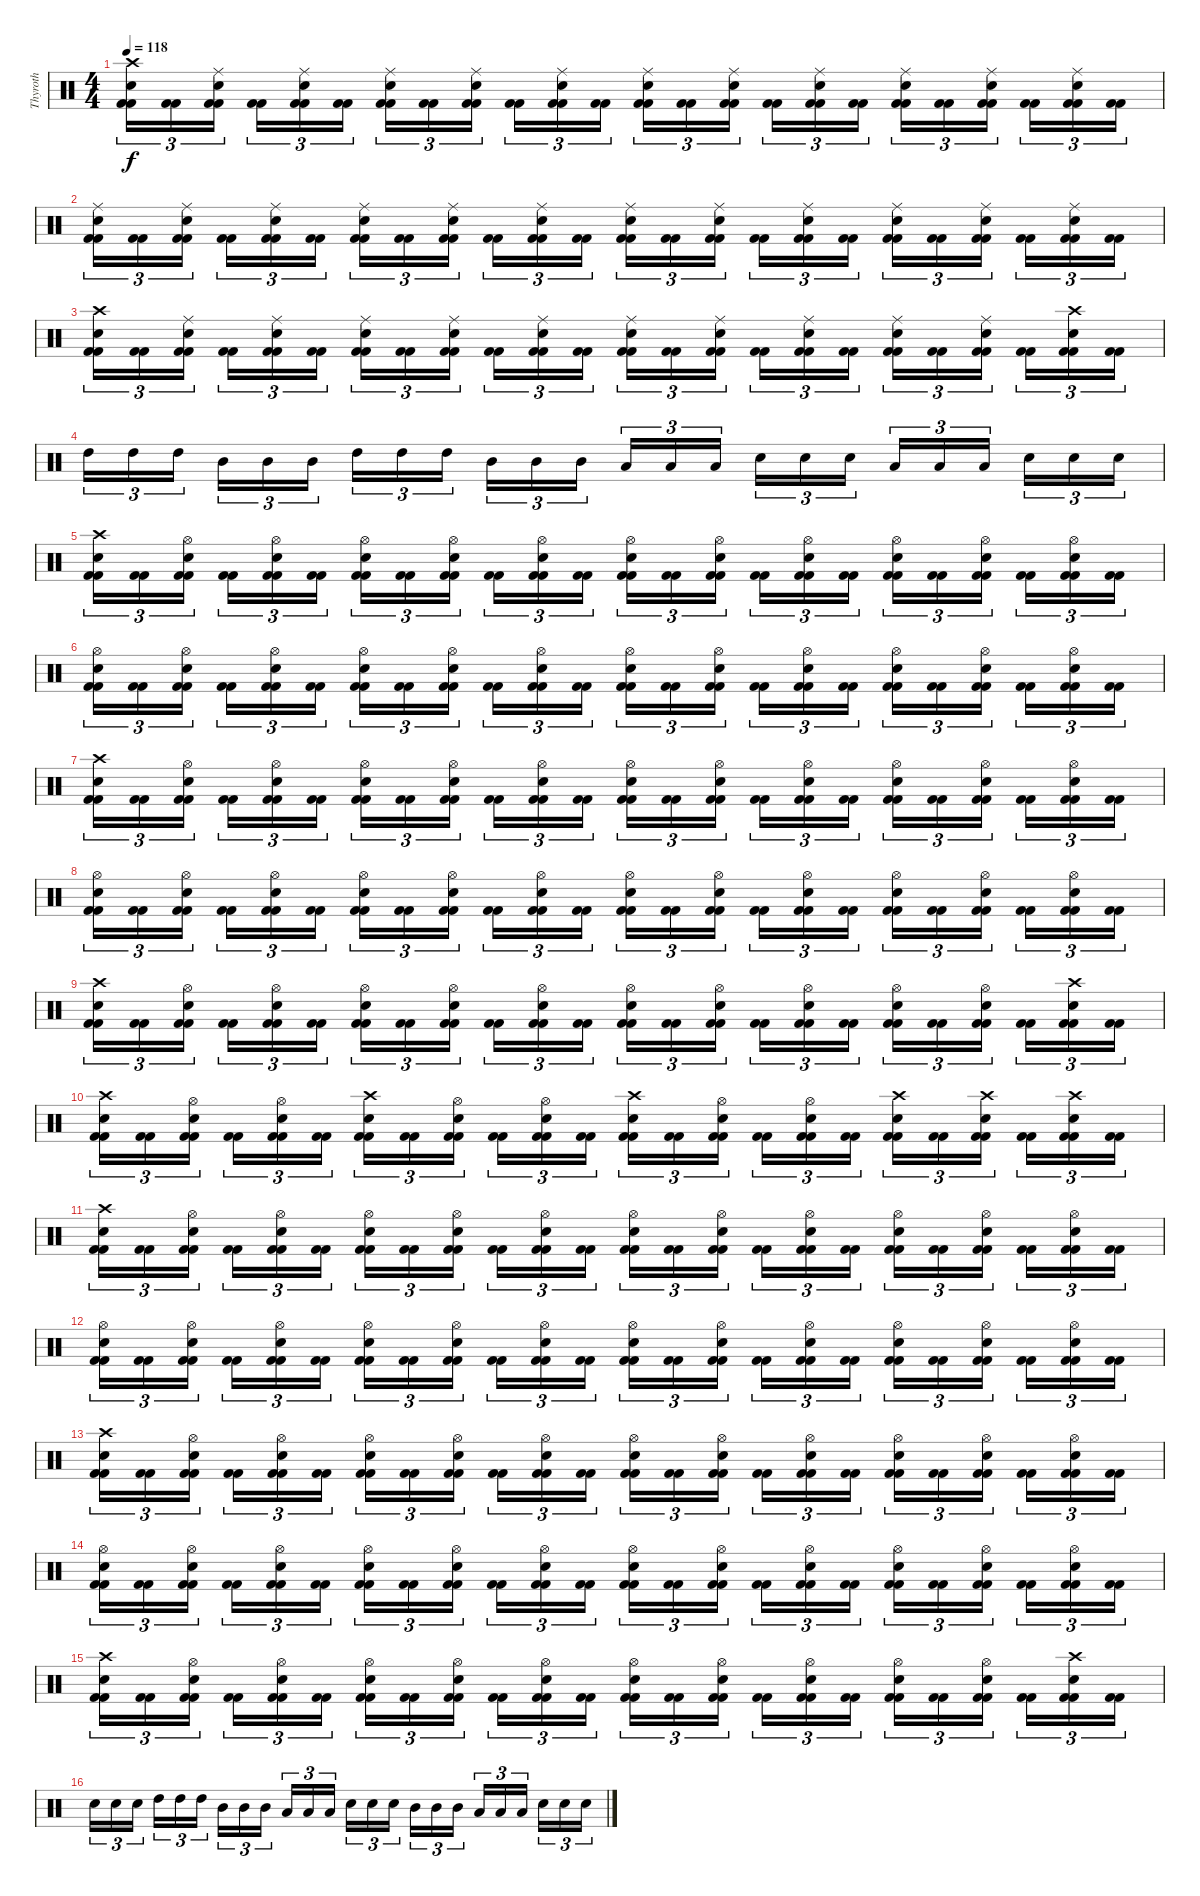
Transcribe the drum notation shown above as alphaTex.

\track ("Thyroth" "Thyroth") {instrument percussion}
\staff {score}
\articulation defaults
\ts (4 4)
\tempo 118
\clef neutral
\ks c
("Kick (hit) 2" "Kick (hit) 2" "Snare (hit) 2" "Crash high (hit)").16{tu (3 2) dy f} ("Kick (hit) 2" "Kick (hit) 2").16{tu (3 2)} ("Kick (hit) 2" "Kick (hit) 2" "Snare (hit) 2" "Ride (middle)").16{tu (3 2)} ("Kick (hit) 2" "Kick (hit) 2").16{tu (3 2)} ("Kick (hit) 2" "Kick (hit) 2" "Snare (hit) 2" "Ride (middle)").16{tu (3 2)} ("Kick (hit) 2" "Kick (hit) 2").16{tu (3 2)} ("Kick (hit) 2" "Kick (hit) 2" "Snare (hit) 2" "Ride (middle)").16{tu (3 2)} ("Kick (hit) 2" "Kick (hit) 2").16{tu (3 2)} ("Kick (hit) 2" "Kick (hit) 2" "Snare (hit) 2" "Ride (middle)").16{tu (3 2)} ("Kick (hit) 2" "Kick (hit) 2").16{tu (3 2)} ("Kick (hit) 2" "Kick (hit) 2" "Snare (hit) 2" "Ride (middle)").16{tu (3 2)} ("Kick (hit) 2" "Kick (hit) 2").16{tu (3 2)} ("Kick (hit) 2" "Kick (hit) 2" "Snare (hit) 2" "Ride (middle)").16{tu (3 2)} ("Kick (hit) 2" "Kick (hit) 2").16{tu (3 2)} ("Kick (hit) 2" "Kick (hit) 2" "Snare (hit) 2" "Ride (middle)").16{tu (3 2)} ("Kick (hit) 2" "Kick (hit) 2").16{tu (3 2)} ("Kick (hit) 2" "Kick (hit) 2" "Snare (hit) 2" "Ride (middle)").16{tu (3 2)} ("Kick (hit) 2" "Kick (hit) 2").16{tu (3 2)} ("Kick (hit) 2" "Kick (hit) 2" "Snare (hit) 2" "Ride (middle)").16{tu (3 2)} ("Kick (hit) 2" "Kick (hit) 2").16{tu (3 2)} ("Kick (hit) 2" "Kick (hit) 2" "Snare (hit) 2" "Ride (middle)").16{tu (3 2)} ("Kick (hit) 2" "Kick (hit) 2").16{tu (3 2)} ("Kick (hit) 2" "Kick (hit) 2" "Snare (hit) 2" "Ride (middle)").16{tu (3 2)} ("Kick (hit) 2" "Kick (hit) 2").16{tu (3 2)} |
("Kick (hit) 2" "Kick (hit) 2" "Snare (hit) 2" "Ride (middle)").16{tu (3 2)} ("Kick (hit) 2" "Kick (hit) 2").16{tu (3 2)} ("Kick (hit) 2" "Kick (hit) 2" "Snare (hit) 2" "Ride (middle)").16{tu (3 2)} ("Kick (hit) 2" "Kick (hit) 2").16{tu (3 2)} ("Kick (hit) 2" "Kick (hit) 2" "Snare (hit) 2" "Ride (middle)").16{tu (3 2)} ("Kick (hit) 2" "Kick (hit) 2").16{tu (3 2)} ("Kick (hit) 2" "Kick (hit) 2" "Snare (hit) 2" "Ride (middle)").16{tu (3 2)} ("Kick (hit) 2" "Kick (hit) 2").16{tu (3 2)} ("Kick (hit) 2" "Kick (hit) 2" "Snare (hit) 2" "Ride (middle)").16{tu (3 2)} ("Kick (hit) 2" "Kick (hit) 2").16{tu (3 2)} ("Kick (hit) 2" "Kick (hit) 2" "Snare (hit) 2" "Ride (middle)").16{tu (3 2)} ("Kick (hit) 2" "Kick (hit) 2").16{tu (3 2)} ("Kick (hit) 2" "Kick (hit) 2" "Snare (hit) 2" "Ride (middle)").16{tu (3 2)} ("Kick (hit) 2" "Kick (hit) 2").16{tu (3 2)} ("Kick (hit) 2" "Kick (hit) 2" "Snare (hit) 2" "Ride (middle)").16{tu (3 2)} ("Kick (hit) 2" "Kick (hit) 2").16{tu (3 2)} ("Kick (hit) 2" "Kick (hit) 2" "Snare (hit) 2" "Ride (middle)").16{tu (3 2)} ("Kick (hit) 2" "Kick (hit) 2").16{tu (3 2)} ("Kick (hit) 2" "Kick (hit) 2" "Snare (hit) 2" "Ride (middle)").16{tu (3 2)} ("Kick (hit) 2" "Kick (hit) 2").16{tu (3 2)} ("Kick (hit) 2" "Kick (hit) 2" "Snare (hit) 2" "Ride (middle)").16{tu (3 2)} ("Kick (hit) 2" "Kick (hit) 2").16{tu (3 2)} ("Kick (hit) 2" "Kick (hit) 2" "Snare (hit) 2" "Ride (middle)").16{tu (3 2)} ("Kick (hit) 2" "Kick (hit) 2").16{tu (3 2)} |
("Kick (hit) 2" "Kick (hit) 2" "Snare (hit) 2" "Crash high (hit)").16{tu (3 2)} ("Kick (hit) 2" "Kick (hit) 2").16{tu (3 2)} ("Kick (hit) 2" "Kick (hit) 2" "Snare (hit) 2" "Ride (middle)").16{tu (3 2)} ("Kick (hit) 2" "Kick (hit) 2").16{tu (3 2)} ("Kick (hit) 2" "Kick (hit) 2" "Snare (hit) 2" "Ride (middle)").16{tu (3 2)} ("Kick (hit) 2" "Kick (hit) 2").16{tu (3 2)} ("Kick (hit) 2" "Kick (hit) 2" "Snare (hit) 2" "Ride (middle)").16{tu (3 2)} ("Kick (hit) 2" "Kick (hit) 2").16{tu (3 2)} ("Kick (hit) 2" "Kick (hit) 2" "Snare (hit) 2" "Ride (middle)").16{tu (3 2)} ("Kick (hit) 2" "Kick (hit) 2").16{tu (3 2)} ("Kick (hit) 2" "Kick (hit) 2" "Snare (hit) 2" "Ride (middle)").16{tu (3 2)} ("Kick (hit) 2" "Kick (hit) 2").16{tu (3 2)} ("Kick (hit) 2" "Kick (hit) 2" "Snare (hit) 2" "Ride (middle)").16{tu (3 2)} ("Kick (hit) 2" "Kick (hit) 2").16{tu (3 2)} ("Kick (hit) 2" "Kick (hit) 2" "Snare (hit) 2" "Ride (middle)").16{tu (3 2)} ("Kick (hit) 2" "Kick (hit) 2").16{tu (3 2)} ("Kick (hit) 2" "Kick (hit) 2" "Snare (hit) 2" "Ride (middle)").16{tu (3 2)} ("Kick (hit) 2" "Kick (hit) 2").16{tu (3 2)} ("Kick (hit) 2" "Kick (hit) 2" "Snare (hit) 2" "Ride (middle)").16{tu (3 2)} ("Kick (hit) 2" "Kick (hit) 2").16{tu (3 2)} ("Kick (hit) 2" "Kick (hit) 2" "Snare (hit) 2" "Ride (middle)").16{tu (3 2)} ("Kick (hit) 2" "Kick (hit) 2").16{tu (3 2)} ("Kick (hit) 2" "Kick (hit) 2" "Snare (hit) 2" "Crash high (hit)").16{tu (3 2)} ("Kick (hit) 2" "Kick (hit) 2").16{tu (3 2)} |
"High Tom (hit)".16{tu (3 2)} "High Tom (hit)".16{tu (3 2)} "High Tom (hit)".16{tu (3 2)} "Mid Tom (hit)".16{tu (3 2)} "Mid Tom (hit)".16{tu (3 2)} "Mid Tom (hit)".16{tu (3 2)} "High Tom (hit)".16{tu (3 2)} "High Tom (hit)".16{tu (3 2)} "High Tom (hit)".16{tu (3 2)} "Mid Tom (hit)".16{tu (3 2)} "Mid Tom (hit)".16{tu (3 2)} "Mid Tom (hit)".16{tu (3 2)} "Low Tom (hit)".16{tu (3 2)} "Low Tom (hit)".16{tu (3 2)} "Low Tom (hit)".16{tu (3 2)} "Snare (hit) 2".16{tu (3 2)} "Snare (hit) 2".16{tu (3 2)} "Snare (hit) 2".16{tu (3 2)} "Low Tom (hit)".16{tu (3 2)} "Low Tom (hit)".16{tu (3 2)} "Low Tom (hit)".16{tu (3 2)} "Snare (hit) 2".16{tu (3 2)} "Snare (hit) 2".16{tu (3 2)} "Snare (hit) 2".16{tu (3 2)} |
("Kick (hit) 2" "Kick (hit) 2" "Snare (hit) 2" "Crash high (hit)").16{tu (3 2)} ("Kick (hit) 2" "Kick (hit) 2").16{tu (3 2)} ("Kick (hit) 2" "Kick (hit) 2" "Snare (hit) 2" "Hi-Hat (open)").16{tu (3 2)} ("Kick (hit) 2" "Kick (hit) 2").16{tu (3 2)} ("Kick (hit) 2" "Kick (hit) 2" "Snare (hit) 2" "Hi-Hat (open)").16{tu (3 2)} ("Kick (hit) 2" "Kick (hit) 2").16{tu (3 2)} ("Kick (hit) 2" "Kick (hit) 2" "Snare (hit) 2" "Hi-Hat (open)").16{tu (3 2)} ("Kick (hit) 2" "Kick (hit) 2").16{tu (3 2)} ("Kick (hit) 2" "Kick (hit) 2" "Snare (hit) 2" "Hi-Hat (open)").16{tu (3 2)} ("Kick (hit) 2" "Kick (hit) 2").16{tu (3 2)} ("Kick (hit) 2" "Kick (hit) 2" "Snare (hit) 2" "Hi-Hat (open)").16{tu (3 2)} ("Kick (hit) 2" "Kick (hit) 2").16{tu (3 2)} ("Kick (hit) 2" "Kick (hit) 2" "Snare (hit) 2" "Hi-Hat (open)").16{tu (3 2)} ("Kick (hit) 2" "Kick (hit) 2").16{tu (3 2)} ("Kick (hit) 2" "Kick (hit) 2" "Snare (hit) 2" "Hi-Hat (open)").16{tu (3 2)} ("Kick (hit) 2" "Kick (hit) 2").16{tu (3 2)} ("Kick (hit) 2" "Kick (hit) 2" "Snare (hit) 2" "Hi-Hat (open)").16{tu (3 2)} ("Kick (hit) 2" "Kick (hit) 2").16{tu (3 2)} ("Kick (hit) 2" "Kick (hit) 2" "Snare (hit) 2" "Hi-Hat (open)").16{tu (3 2)} ("Kick (hit) 2" "Kick (hit) 2").16{tu (3 2)} ("Kick (hit) 2" "Kick (hit) 2" "Snare (hit) 2" "Hi-Hat (open)").16{tu (3 2)} ("Kick (hit) 2" "Kick (hit) 2").16{tu (3 2)} ("Kick (hit) 2" "Kick (hit) 2" "Snare (hit) 2" "Hi-Hat (open)").16{tu (3 2)} ("Kick (hit) 2" "Kick (hit) 2").16{tu (3 2)} |
("Kick (hit) 2" "Kick (hit) 2" "Snare (hit) 2" "Hi-Hat (open)").16{tu (3 2)} ("Kick (hit) 2" "Kick (hit) 2").16{tu (3 2)} ("Kick (hit) 2" "Kick (hit) 2" "Snare (hit) 2" "Hi-Hat (open)").16{tu (3 2)} ("Kick (hit) 2" "Kick (hit) 2").16{tu (3 2)} ("Kick (hit) 2" "Kick (hit) 2" "Snare (hit) 2" "Hi-Hat (open)").16{tu (3 2)} ("Kick (hit) 2" "Kick (hit) 2").16{tu (3 2)} ("Kick (hit) 2" "Kick (hit) 2" "Snare (hit) 2" "Hi-Hat (open)").16{tu (3 2)} ("Kick (hit) 2" "Kick (hit) 2").16{tu (3 2)} ("Kick (hit) 2" "Kick (hit) 2" "Snare (hit) 2" "Hi-Hat (open)").16{tu (3 2)} ("Kick (hit) 2" "Kick (hit) 2").16{tu (3 2)} ("Kick (hit) 2" "Kick (hit) 2" "Snare (hit) 2" "Hi-Hat (open)").16{tu (3 2)} ("Kick (hit) 2" "Kick (hit) 2").16{tu (3 2)} ("Kick (hit) 2" "Kick (hit) 2" "Snare (hit) 2" "Hi-Hat (open)").16{tu (3 2)} ("Kick (hit) 2" "Kick (hit) 2").16{tu (3 2)} ("Kick (hit) 2" "Kick (hit) 2" "Snare (hit) 2" "Hi-Hat (open)").16{tu (3 2)} ("Kick (hit) 2" "Kick (hit) 2").16{tu (3 2)} ("Kick (hit) 2" "Kick (hit) 2" "Snare (hit) 2" "Hi-Hat (open)").16{tu (3 2)} ("Kick (hit) 2" "Kick (hit) 2").16{tu (3 2)} ("Kick (hit) 2" "Kick (hit) 2" "Snare (hit) 2" "Hi-Hat (open)").16{tu (3 2)} ("Kick (hit) 2" "Kick (hit) 2").16{tu (3 2)} ("Kick (hit) 2" "Kick (hit) 2" "Snare (hit) 2" "Hi-Hat (open)").16{tu (3 2)} ("Kick (hit) 2" "Kick (hit) 2").16{tu (3 2)} ("Kick (hit) 2" "Kick (hit) 2" "Snare (hit) 2" "Hi-Hat (open)").16{tu (3 2)} ("Kick (hit) 2" "Kick (hit) 2").16{tu (3 2)} |
("Kick (hit) 2" "Kick (hit) 2" "Snare (hit) 2" "Crash high (hit)").16{tu (3 2)} ("Kick (hit) 2" "Kick (hit) 2").16{tu (3 2)} ("Kick (hit) 2" "Kick (hit) 2" "Snare (hit) 2" "Hi-Hat (open)").16{tu (3 2)} ("Kick (hit) 2" "Kick (hit) 2").16{tu (3 2)} ("Kick (hit) 2" "Kick (hit) 2" "Snare (hit) 2" "Hi-Hat (open)").16{tu (3 2)} ("Kick (hit) 2" "Kick (hit) 2").16{tu (3 2)} ("Kick (hit) 2" "Kick (hit) 2" "Snare (hit) 2" "Hi-Hat (open)").16{tu (3 2)} ("Kick (hit) 2" "Kick (hit) 2").16{tu (3 2)} ("Kick (hit) 2" "Kick (hit) 2" "Snare (hit) 2" "Hi-Hat (open)").16{tu (3 2)} ("Kick (hit) 2" "Kick (hit) 2").16{tu (3 2)} ("Kick (hit) 2" "Kick (hit) 2" "Snare (hit) 2" "Hi-Hat (open)").16{tu (3 2)} ("Kick (hit) 2" "Kick (hit) 2").16{tu (3 2)} ("Kick (hit) 2" "Kick (hit) 2" "Snare (hit) 2" "Hi-Hat (open)").16{tu (3 2)} ("Kick (hit) 2" "Kick (hit) 2").16{tu (3 2)} ("Kick (hit) 2" "Kick (hit) 2" "Snare (hit) 2" "Hi-Hat (open)").16{tu (3 2)} ("Kick (hit) 2" "Kick (hit) 2").16{tu (3 2)} ("Kick (hit) 2" "Kick (hit) 2" "Snare (hit) 2" "Hi-Hat (open)").16{tu (3 2)} ("Kick (hit) 2" "Kick (hit) 2").16{tu (3 2)} ("Kick (hit) 2" "Kick (hit) 2" "Snare (hit) 2" "Hi-Hat (open)").16{tu (3 2)} ("Kick (hit) 2" "Kick (hit) 2").16{tu (3 2)} ("Kick (hit) 2" "Kick (hit) 2" "Snare (hit) 2" "Hi-Hat (open)").16{tu (3 2)} ("Kick (hit) 2" "Kick (hit) 2").16{tu (3 2)} ("Kick (hit) 2" "Kick (hit) 2" "Snare (hit) 2" "Hi-Hat (open)").16{tu (3 2)} ("Kick (hit) 2" "Kick (hit) 2").16{tu (3 2)} |
("Kick (hit) 2" "Kick (hit) 2" "Snare (hit) 2" "Hi-Hat (open)").16{tu (3 2)} ("Kick (hit) 2" "Kick (hit) 2").16{tu (3 2)} ("Kick (hit) 2" "Kick (hit) 2" "Snare (hit) 2" "Hi-Hat (open)").16{tu (3 2)} ("Kick (hit) 2" "Kick (hit) 2").16{tu (3 2)} ("Kick (hit) 2" "Kick (hit) 2" "Snare (hit) 2" "Hi-Hat (open)").16{tu (3 2)} ("Kick (hit) 2" "Kick (hit) 2").16{tu (3 2)} ("Kick (hit) 2" "Kick (hit) 2" "Snare (hit) 2" "Hi-Hat (open)").16{tu (3 2)} ("Kick (hit) 2" "Kick (hit) 2").16{tu (3 2)} ("Kick (hit) 2" "Kick (hit) 2" "Snare (hit) 2" "Hi-Hat (open)").16{tu (3 2)} ("Kick (hit) 2" "Kick (hit) 2").16{tu (3 2)} ("Kick (hit) 2" "Kick (hit) 2" "Snare (hit) 2" "Hi-Hat (open)").16{tu (3 2)} ("Kick (hit) 2" "Kick (hit) 2").16{tu (3 2)} ("Kick (hit) 2" "Kick (hit) 2" "Snare (hit) 2" "Hi-Hat (open)").16{tu (3 2)} ("Kick (hit) 2" "Kick (hit) 2").16{tu (3 2)} ("Kick (hit) 2" "Kick (hit) 2" "Snare (hit) 2" "Hi-Hat (open)").16{tu (3 2)} ("Kick (hit) 2" "Kick (hit) 2").16{tu (3 2)} ("Kick (hit) 2" "Kick (hit) 2" "Snare (hit) 2" "Hi-Hat (open)").16{tu (3 2)} ("Kick (hit) 2" "Kick (hit) 2").16{tu (3 2)} ("Kick (hit) 2" "Kick (hit) 2" "Snare (hit) 2" "Hi-Hat (open)").16{tu (3 2)} ("Kick (hit) 2" "Kick (hit) 2").16{tu (3 2)} ("Kick (hit) 2" "Kick (hit) 2" "Snare (hit) 2" "Hi-Hat (open)").16{tu (3 2)} ("Kick (hit) 2" "Kick (hit) 2").16{tu (3 2)} ("Kick (hit) 2" "Kick (hit) 2" "Snare (hit) 2" "Hi-Hat (open)").16{tu (3 2)} ("Kick (hit) 2" "Kick (hit) 2").16{tu (3 2)} |
("Kick (hit) 2" "Kick (hit) 2" "Snare (hit) 2" "Crash high (hit)").16{tu (3 2)} ("Kick (hit) 2" "Kick (hit) 2").16{tu (3 2)} ("Kick (hit) 2" "Kick (hit) 2" "Snare (hit) 2" "Hi-Hat (open)").16{tu (3 2)} ("Kick (hit) 2" "Kick (hit) 2").16{tu (3 2)} ("Kick (hit) 2" "Kick (hit) 2" "Snare (hit) 2" "Hi-Hat (open)").16{tu (3 2)} ("Kick (hit) 2" "Kick (hit) 2").16{tu (3 2)} ("Kick (hit) 2" "Kick (hit) 2" "Snare (hit) 2" "Hi-Hat (open)").16{tu (3 2)} ("Kick (hit) 2" "Kick (hit) 2").16{tu (3 2)} ("Kick (hit) 2" "Kick (hit) 2" "Snare (hit) 2" "Hi-Hat (open)").16{tu (3 2)} ("Kick (hit) 2" "Kick (hit) 2").16{tu (3 2)} ("Kick (hit) 2" "Kick (hit) 2" "Snare (hit) 2" "Hi-Hat (open)").16{tu (3 2)} ("Kick (hit) 2" "Kick (hit) 2").16{tu (3 2)} ("Kick (hit) 2" "Kick (hit) 2" "Snare (hit) 2" "Hi-Hat (open)").16{tu (3 2)} ("Kick (hit) 2" "Kick (hit) 2").16{tu (3 2)} ("Kick (hit) 2" "Kick (hit) 2" "Snare (hit) 2" "Hi-Hat (open)").16{tu (3 2)} ("Kick (hit) 2" "Kick (hit) 2").16{tu (3 2)} ("Kick (hit) 2" "Kick (hit) 2" "Snare (hit) 2" "Hi-Hat (open)").16{tu (3 2)} ("Kick (hit) 2" "Kick (hit) 2").16{tu (3 2)} ("Kick (hit) 2" "Kick (hit) 2" "Snare (hit) 2" "Hi-Hat (open)").16{tu (3 2)} ("Kick (hit) 2" "Kick (hit) 2").16{tu (3 2)} ("Kick (hit) 2" "Kick (hit) 2" "Snare (hit) 2" "Hi-Hat (open)").16{tu (3 2)} ("Kick (hit) 2" "Kick (hit) 2").16{tu (3 2)} ("Kick (hit) 2" "Kick (hit) 2" "Snare (hit) 2" "Crash high (hit)").16{tu (3 2)} ("Kick (hit) 2" "Kick (hit) 2").16{tu (3 2)} |
("Kick (hit) 2" "Kick (hit) 2" "Snare (hit) 2" "Crash high (hit)").16{tu (3 2)} ("Kick (hit) 2" "Kick (hit) 2").16{tu (3 2)} ("Kick (hit) 2" "Kick (hit) 2" "Snare (hit) 2" "Hi-Hat (open)").16{tu (3 2)} ("Kick (hit) 2" "Kick (hit) 2").16{tu (3 2)} ("Kick (hit) 2" "Kick (hit) 2" "Snare (hit) 2" "Hi-Hat (open)").16{tu (3 2)} ("Kick (hit) 2" "Kick (hit) 2").16{tu (3 2)} ("Kick (hit) 2" "Kick (hit) 2" "Snare (hit) 2" "Crash high (hit)").16{tu (3 2)} ("Kick (hit) 2" "Kick (hit) 2").16{tu (3 2)} ("Kick (hit) 2" "Kick (hit) 2" "Snare (hit) 2" "Hi-Hat (open)").16{tu (3 2)} ("Kick (hit) 2" "Kick (hit) 2").16{tu (3 2)} ("Kick (hit) 2" "Kick (hit) 2" "Snare (hit) 2" "Hi-Hat (open)").16{tu (3 2)} ("Kick (hit) 2" "Kick (hit) 2").16{tu (3 2)} ("Kick (hit) 2" "Kick (hit) 2" "Snare (hit) 2" "Crash high (hit)").16{tu (3 2)} ("Kick (hit) 2" "Kick (hit) 2").16{tu (3 2)} ("Kick (hit) 2" "Kick (hit) 2" "Snare (hit) 2" "Hi-Hat (open)").16{tu (3 2)} ("Kick (hit) 2" "Kick (hit) 2").16{tu (3 2)} ("Kick (hit) 2" "Kick (hit) 2" "Snare (hit) 2" "Hi-Hat (open)").16{tu (3 2)} ("Kick (hit) 2" "Kick (hit) 2").16{tu (3 2)} ("Kick (hit) 2" "Kick (hit) 2" "Snare (hit) 2" "Crash high (hit)").16{tu (3 2)} ("Kick (hit) 2" "Kick (hit) 2").16{tu (3 2)} ("Kick (hit) 2" "Kick (hit) 2" "Snare (hit) 2" "Crash high (hit)").16{tu (3 2)} ("Kick (hit) 2" "Kick (hit) 2").16{tu (3 2)} ("Kick (hit) 2" "Kick (hit) 2" "Snare (hit) 2" "Crash high (hit)").16{tu (3 2)} ("Kick (hit) 2" "Kick (hit) 2").16{tu (3 2)} |
("Kick (hit) 2" "Kick (hit) 2" "Snare (hit) 2" "Crash high (hit)").16{tu (3 2)} ("Kick (hit) 2" "Kick (hit) 2").16{tu (3 2)} ("Kick (hit) 2" "Kick (hit) 2" "Snare (hit) 2" "Hi-Hat (open)").16{tu (3 2)} ("Kick (hit) 2" "Kick (hit) 2").16{tu (3 2)} ("Kick (hit) 2" "Kick (hit) 2" "Snare (hit) 2" "Hi-Hat (open)").16{tu (3 2)} ("Kick (hit) 2" "Kick (hit) 2").16{tu (3 2)} ("Kick (hit) 2" "Kick (hit) 2" "Snare (hit) 2" "Hi-Hat (open)").16{tu (3 2)} ("Kick (hit) 2" "Kick (hit) 2").16{tu (3 2)} ("Kick (hit) 2" "Kick (hit) 2" "Snare (hit) 2" "Hi-Hat (open)").16{tu (3 2)} ("Kick (hit) 2" "Kick (hit) 2").16{tu (3 2)} ("Kick (hit) 2" "Kick (hit) 2" "Snare (hit) 2" "Hi-Hat (open)").16{tu (3 2)} ("Kick (hit) 2" "Kick (hit) 2").16{tu (3 2)} ("Kick (hit) 2" "Kick (hit) 2" "Snare (hit) 2" "Hi-Hat (open)").16{tu (3 2)} ("Kick (hit) 2" "Kick (hit) 2").16{tu (3 2)} ("Kick (hit) 2" "Kick (hit) 2" "Snare (hit) 2" "Hi-Hat (open)").16{tu (3 2)} ("Kick (hit) 2" "Kick (hit) 2").16{tu (3 2)} ("Kick (hit) 2" "Kick (hit) 2" "Snare (hit) 2" "Hi-Hat (open)").16{tu (3 2)} ("Kick (hit) 2" "Kick (hit) 2").16{tu (3 2)} ("Kick (hit) 2" "Kick (hit) 2" "Snare (hit) 2" "Hi-Hat (open)").16{tu (3 2)} ("Kick (hit) 2" "Kick (hit) 2").16{tu (3 2)} ("Kick (hit) 2" "Kick (hit) 2" "Snare (hit) 2" "Hi-Hat (open)").16{tu (3 2)} ("Kick (hit) 2" "Kick (hit) 2").16{tu (3 2)} ("Kick (hit) 2" "Kick (hit) 2" "Snare (hit) 2" "Hi-Hat (open)").16{tu (3 2)} ("Kick (hit) 2" "Kick (hit) 2").16{tu (3 2)} |
("Kick (hit) 2" "Kick (hit) 2" "Snare (hit) 2" "Hi-Hat (open)").16{tu (3 2)} ("Kick (hit) 2" "Kick (hit) 2").16{tu (3 2)} ("Kick (hit) 2" "Kick (hit) 2" "Snare (hit) 2" "Hi-Hat (open)").16{tu (3 2)} ("Kick (hit) 2" "Kick (hit) 2").16{tu (3 2)} ("Kick (hit) 2" "Kick (hit) 2" "Snare (hit) 2" "Hi-Hat (open)").16{tu (3 2)} ("Kick (hit) 2" "Kick (hit) 2").16{tu (3 2)} ("Kick (hit) 2" "Kick (hit) 2" "Snare (hit) 2" "Hi-Hat (open)").16{tu (3 2)} ("Kick (hit) 2" "Kick (hit) 2").16{tu (3 2)} ("Kick (hit) 2" "Kick (hit) 2" "Snare (hit) 2" "Hi-Hat (open)").16{tu (3 2)} ("Kick (hit) 2" "Kick (hit) 2").16{tu (3 2)} ("Kick (hit) 2" "Kick (hit) 2" "Snare (hit) 2" "Hi-Hat (open)").16{tu (3 2)} ("Kick (hit) 2" "Kick (hit) 2").16{tu (3 2)} ("Kick (hit) 2" "Kick (hit) 2" "Snare (hit) 2" "Hi-Hat (open)").16{tu (3 2)} ("Kick (hit) 2" "Kick (hit) 2").16{tu (3 2)} ("Kick (hit) 2" "Kick (hit) 2" "Snare (hit) 2" "Hi-Hat (open)").16{tu (3 2)} ("Kick (hit) 2" "Kick (hit) 2").16{tu (3 2)} ("Kick (hit) 2" "Kick (hit) 2" "Snare (hit) 2" "Hi-Hat (open)").16{tu (3 2)} ("Kick (hit) 2" "Kick (hit) 2").16{tu (3 2)} ("Kick (hit) 2" "Kick (hit) 2" "Snare (hit) 2" "Hi-Hat (open)").16{tu (3 2)} ("Kick (hit) 2" "Kick (hit) 2").16{tu (3 2)} ("Kick (hit) 2" "Kick (hit) 2" "Snare (hit) 2" "Hi-Hat (open)").16{tu (3 2)} ("Kick (hit) 2" "Kick (hit) 2").16{tu (3 2)} ("Kick (hit) 2" "Kick (hit) 2" "Snare (hit) 2" "Hi-Hat (open)").16{tu (3 2)} ("Kick (hit) 2" "Kick (hit) 2").16{tu (3 2)} |
("Kick (hit) 2" "Kick (hit) 2" "Snare (hit) 2" "Crash high (hit)").16{tu (3 2)} ("Kick (hit) 2" "Kick (hit) 2").16{tu (3 2)} ("Kick (hit) 2" "Kick (hit) 2" "Snare (hit) 2" "Hi-Hat (open)").16{tu (3 2)} ("Kick (hit) 2" "Kick (hit) 2").16{tu (3 2)} ("Kick (hit) 2" "Kick (hit) 2" "Snare (hit) 2" "Hi-Hat (open)").16{tu (3 2)} ("Kick (hit) 2" "Kick (hit) 2").16{tu (3 2)} ("Kick (hit) 2" "Kick (hit) 2" "Snare (hit) 2" "Hi-Hat (open)").16{tu (3 2)} ("Kick (hit) 2" "Kick (hit) 2").16{tu (3 2)} ("Kick (hit) 2" "Kick (hit) 2" "Snare (hit) 2" "Hi-Hat (open)").16{tu (3 2)} ("Kick (hit) 2" "Kick (hit) 2").16{tu (3 2)} ("Kick (hit) 2" "Kick (hit) 2" "Snare (hit) 2" "Hi-Hat (open)").16{tu (3 2)} ("Kick (hit) 2" "Kick (hit) 2").16{tu (3 2)} ("Kick (hit) 2" "Kick (hit) 2" "Snare (hit) 2" "Hi-Hat (open)").16{tu (3 2)} ("Kick (hit) 2" "Kick (hit) 2").16{tu (3 2)} ("Kick (hit) 2" "Kick (hit) 2" "Snare (hit) 2" "Hi-Hat (open)").16{tu (3 2)} ("Kick (hit) 2" "Kick (hit) 2").16{tu (3 2)} ("Kick (hit) 2" "Kick (hit) 2" "Snare (hit) 2" "Hi-Hat (open)").16{tu (3 2)} ("Kick (hit) 2" "Kick (hit) 2").16{tu (3 2)} ("Kick (hit) 2" "Kick (hit) 2" "Snare (hit) 2" "Hi-Hat (open)").16{tu (3 2)} ("Kick (hit) 2" "Kick (hit) 2").16{tu (3 2)} ("Kick (hit) 2" "Kick (hit) 2" "Snare (hit) 2" "Hi-Hat (open)").16{tu (3 2)} ("Kick (hit) 2" "Kick (hit) 2").16{tu (3 2)} ("Kick (hit) 2" "Kick (hit) 2" "Snare (hit) 2" "Hi-Hat (open)").16{tu (3 2)} ("Kick (hit) 2" "Kick (hit) 2").16{tu (3 2)} |
("Kick (hit) 2" "Kick (hit) 2" "Snare (hit) 2" "Hi-Hat (open)").16{tu (3 2)} ("Kick (hit) 2" "Kick (hit) 2").16{tu (3 2)} ("Kick (hit) 2" "Kick (hit) 2" "Snare (hit) 2" "Hi-Hat (open)").16{tu (3 2)} ("Kick (hit) 2" "Kick (hit) 2").16{tu (3 2)} ("Kick (hit) 2" "Kick (hit) 2" "Snare (hit) 2" "Hi-Hat (open)").16{tu (3 2)} ("Kick (hit) 2" "Kick (hit) 2").16{tu (3 2)} ("Kick (hit) 2" "Kick (hit) 2" "Snare (hit) 2" "Hi-Hat (open)").16{tu (3 2)} ("Kick (hit) 2" "Kick (hit) 2").16{tu (3 2)} ("Kick (hit) 2" "Kick (hit) 2" "Snare (hit) 2" "Hi-Hat (open)").16{tu (3 2)} ("Kick (hit) 2" "Kick (hit) 2").16{tu (3 2)} ("Kick (hit) 2" "Kick (hit) 2" "Snare (hit) 2" "Hi-Hat (open)").16{tu (3 2)} ("Kick (hit) 2" "Kick (hit) 2").16{tu (3 2)} ("Kick (hit) 2" "Kick (hit) 2" "Snare (hit) 2" "Hi-Hat (open)").16{tu (3 2)} ("Kick (hit) 2" "Kick (hit) 2").16{tu (3 2)} ("Kick (hit) 2" "Kick (hit) 2" "Snare (hit) 2" "Hi-Hat (open)").16{tu (3 2)} ("Kick (hit) 2" "Kick (hit) 2").16{tu (3 2)} ("Kick (hit) 2" "Kick (hit) 2" "Snare (hit) 2" "Hi-Hat (open)").16{tu (3 2)} ("Kick (hit) 2" "Kick (hit) 2").16{tu (3 2)} ("Kick (hit) 2" "Kick (hit) 2" "Snare (hit) 2" "Hi-Hat (open)").16{tu (3 2)} ("Kick (hit) 2" "Kick (hit) 2").16{tu (3 2)} ("Kick (hit) 2" "Kick (hit) 2" "Snare (hit) 2" "Hi-Hat (open)").16{tu (3 2)} ("Kick (hit) 2" "Kick (hit) 2").16{tu (3 2)} ("Kick (hit) 2" "Kick (hit) 2" "Snare (hit) 2" "Hi-Hat (open)").16{tu (3 2)} ("Kick (hit) 2" "Kick (hit) 2").16{tu (3 2)} |
("Kick (hit) 2" "Kick (hit) 2" "Snare (hit) 2" "Crash high (hit)").16{tu (3 2)} ("Kick (hit) 2" "Kick (hit) 2").16{tu (3 2)} ("Kick (hit) 2" "Kick (hit) 2" "Snare (hit) 2" "Hi-Hat (open)").16{tu (3 2)} ("Kick (hit) 2" "Kick (hit) 2").16{tu (3 2)} ("Kick (hit) 2" "Kick (hit) 2" "Snare (hit) 2" "Hi-Hat (open)").16{tu (3 2)} ("Kick (hit) 2" "Kick (hit) 2").16{tu (3 2)} ("Kick (hit) 2" "Kick (hit) 2" "Snare (hit) 2" "Hi-Hat (open)").16{tu (3 2)} ("Kick (hit) 2" "Kick (hit) 2").16{tu (3 2)} ("Kick (hit) 2" "Kick (hit) 2" "Snare (hit) 2" "Hi-Hat (open)").16{tu (3 2)} ("Kick (hit) 2" "Kick (hit) 2").16{tu (3 2)} ("Kick (hit) 2" "Kick (hit) 2" "Snare (hit) 2" "Hi-Hat (open)").16{tu (3 2)} ("Kick (hit) 2" "Kick (hit) 2").16{tu (3 2)} ("Kick (hit) 2" "Kick (hit) 2" "Snare (hit) 2" "Hi-Hat (open)").16{tu (3 2)} ("Kick (hit) 2" "Kick (hit) 2").16{tu (3 2)} ("Kick (hit) 2" "Kick (hit) 2" "Snare (hit) 2" "Hi-Hat (open)").16{tu (3 2)} ("Kick (hit) 2" "Kick (hit) 2").16{tu (3 2)} ("Kick (hit) 2" "Kick (hit) 2" "Snare (hit) 2" "Hi-Hat (open)").16{tu (3 2)} ("Kick (hit) 2" "Kick (hit) 2").16{tu (3 2)} ("Kick (hit) 2" "Kick (hit) 2" "Snare (hit) 2" "Hi-Hat (open)").16{tu (3 2)} ("Kick (hit) 2" "Kick (hit) 2").16{tu (3 2)} ("Kick (hit) 2" "Kick (hit) 2" "Snare (hit) 2" "Hi-Hat (open)").16{tu (3 2)} ("Kick (hit) 2" "Kick (hit) 2").16{tu (3 2)} ("Kick (hit) 2" "Kick (hit) 2" "Snare (hit) 2" "Crash high (hit)").16{tu (3 2)} ("Kick (hit) 2" "Kick (hit) 2").16{tu (3 2)} |
"Snare (hit) 2".16{tu (3 2)} "Snare (hit) 2".16{tu (3 2)} "Snare (hit) 2".16{tu (3 2)} "High Tom (hit)".16{tu (3 2)} "High Tom (hit)".16{tu (3 2)} "High Tom (hit)".16{tu (3 2)} "Mid Tom (hit)".16{tu (3 2)} "Mid Tom (hit)".16{tu (3 2)} "Mid Tom (hit)".16{tu (3 2)} "Low Tom (hit)".16{tu (3 2)} "Low Tom (hit)".16{tu (3 2)} "Low Tom (hit)".16{tu (3 2)} "Snare (hit) 2".16{tu (3 2)} "Snare (hit) 2".16{tu (3 2)} "Snare (hit) 2".16{tu (3 2)} "Mid Tom (hit)".16{tu (3 2)} "Mid Tom (hit)".16{tu (3 2)} "Mid Tom (hit)".16{tu (3 2)} "Low Tom (hit)".16{tu (3 2)} "Low Tom (hit)".16{tu (3 2)} "Low Tom (hit)".16{tu (3 2)} "Snare (hit) 2".16{tu (3 2)} "Snare (hit) 2".16{tu (3 2)} "Snare (hit) 2".16{tu (3 2)}
